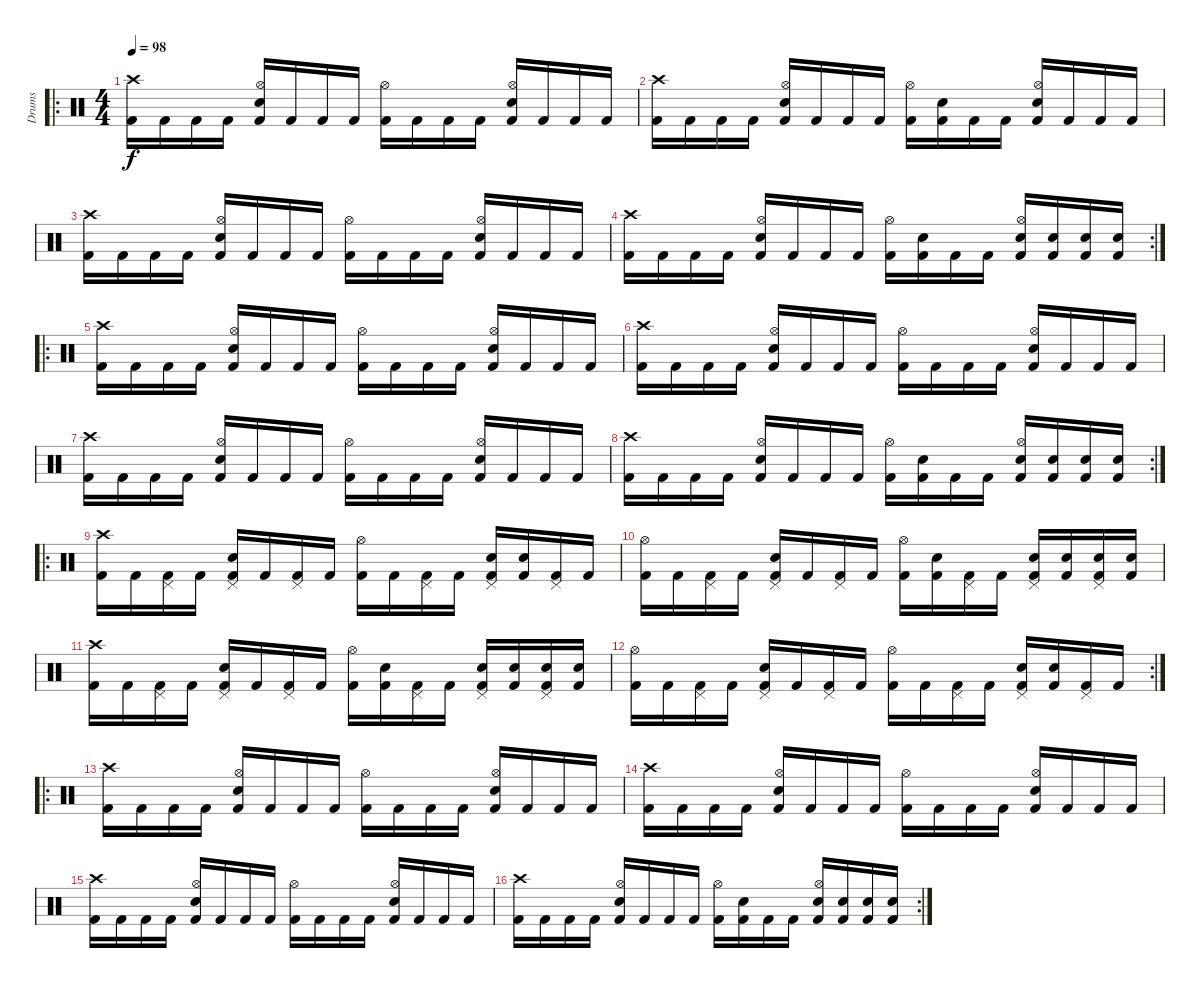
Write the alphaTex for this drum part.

\track ("Drums" "Drums") {instrument percussion}
\staff {score}
\articulation defaults
\ro
\ts (4 4)
\tempo 98
\clef neutral
\ks c
("Crash high (hit)" "Kick (hit) 2").16{dy f} "Kick (hit) 2".16 "Kick (hit) 2".16 "Kick (hit) 2".16 ("Hi-Hat (open)" "Electric Snare (hit)" "Kick (hit) 2").16 "Kick (hit) 2".16 "Kick (hit) 2".16 "Kick (hit) 2".16 ("Hi-Hat (open)" "Kick (hit) 2").16 "Kick (hit) 2".16 "Kick (hit) 2".16 "Kick (hit) 2".16 ("Hi-Hat (open)" "Electric Snare (hit)" "Kick (hit) 2").16 "Kick (hit) 2".16 "Kick (hit) 2".16 "Kick (hit) 2".16 |
("Crash high (hit)" "Kick (hit) 2").16 "Kick (hit) 2".16 "Kick (hit) 2".16 "Kick (hit) 2".16 ("Hi-Hat (open)" "Electric Snare (hit)" "Kick (hit) 2").16 "Kick (hit) 2".16 "Kick (hit) 2".16 "Kick (hit) 2".16 ("Hi-Hat (open)" "Kick (hit) 2").16 ("Electric Snare (hit)" "Kick (hit) 2").16 "Kick (hit) 2".16 "Kick (hit) 2".16 ("Hi-Hat (open)" "Electric Snare (hit)" "Kick (hit) 2").16 "Kick (hit) 2".16 "Kick (hit) 2".16 "Kick (hit) 2".16 |
("Crash high (hit)" "Kick (hit) 2").16 "Kick (hit) 2".16 "Kick (hit) 2".16 "Kick (hit) 2".16 ("Hi-Hat (open)" "Electric Snare (hit)" "Kick (hit) 2").16 "Kick (hit) 2".16 "Kick (hit) 2".16 "Kick (hit) 2".16 ("Hi-Hat (open)" "Kick (hit) 2").16 "Kick (hit) 2".16 "Kick (hit) 2".16 "Kick (hit) 2".16 ("Hi-Hat (open)" "Electric Snare (hit)" "Kick (hit) 2").16 "Kick (hit) 2".16 "Kick (hit) 2".16 "Kick (hit) 2".16 |
\rc 2
("Crash high (hit)" "Kick (hit) 2").16 "Kick (hit) 2".16 "Kick (hit) 2".16 "Kick (hit) 2".16 ("Hi-Hat (open)" "Electric Snare (hit)" "Kick (hit) 2").16 "Kick (hit) 2".16 "Kick (hit) 2".16 "Kick (hit) 2".16 ("Hi-Hat (open)" "Kick (hit) 2").16 ("Electric Snare (hit)" "Kick (hit) 2").16 "Kick (hit) 2".16 "Kick (hit) 2".16 ("Hi-Hat (open)" "Electric Snare (hit)" "Kick (hit) 2").16 ("Electric Snare (hit)" "Kick (hit) 2").16 ("Electric Snare (hit)" "Kick (hit) 2").16 ("Electric Snare (hit)" "Kick (hit) 2").16 |
\ro
("Crash high (hit)" "Kick (hit) 2").16 "Kick (hit) 2".16 "Kick (hit) 2".16 "Kick (hit) 2".16 ("Hi-Hat (open)" "Electric Snare (hit)" "Kick (hit) 2").16 "Kick (hit) 2".16 "Kick (hit) 2".16 "Kick (hit) 2".16 ("Hi-Hat (open)" "Kick (hit) 2").16 "Kick (hit) 2".16 "Kick (hit) 2".16 "Kick (hit) 2".16 ("Hi-Hat (open)" "Electric Snare (hit)" "Kick (hit) 2").16 "Kick (hit) 2".16 "Kick (hit) 2".16 "Kick (hit) 2".16 |
("Crash high (hit)" "Kick (hit) 2").16 "Kick (hit) 2".16 "Kick (hit) 2".16 "Kick (hit) 2".16 ("Hi-Hat (open)" "Electric Snare (hit)" "Kick (hit) 2").16 "Kick (hit) 2".16 "Kick (hit) 2".16 "Kick (hit) 2".16 ("Hi-Hat (open)" "Kick (hit) 2").16 "Kick (hit) 2".16 "Kick (hit) 2".16 "Kick (hit) 2".16 ("Hi-Hat (open)" "Electric Snare (hit)" "Kick (hit) 2").16 "Kick (hit) 2".16 "Kick (hit) 2".16 "Kick (hit) 2".16 |
("Crash high (hit)" "Kick (hit) 2").16 "Kick (hit) 2".16 "Kick (hit) 2".16 "Kick (hit) 2".16 ("Hi-Hat (open)" "Electric Snare (hit)" "Kick (hit) 2").16 "Kick (hit) 2".16 "Kick (hit) 2".16 "Kick (hit) 2".16 ("Hi-Hat (open)" "Kick (hit) 2").16 "Kick (hit) 2".16 "Kick (hit) 2".16 "Kick (hit) 2".16 ("Hi-Hat (open)" "Electric Snare (hit)" "Kick (hit) 2").16 "Kick (hit) 2".16 "Kick (hit) 2".16 "Kick (hit) 2".16 |
\rc 2
("Crash high (hit)" "Kick (hit) 2").16 "Kick (hit) 2".16 "Kick (hit) 2".16 "Kick (hit) 2".16 ("Hi-Hat (open)" "Electric Snare (hit)" "Kick (hit) 2").16 "Kick (hit) 2".16 "Kick (hit) 2".16 "Kick (hit) 2".16 ("Hi-Hat (open)" "Kick (hit) 2").16 ("Electric Snare (hit)" "Kick (hit) 2").16 "Kick (hit) 2".16 "Kick (hit) 2".16 ("Hi-Hat (open)" "Electric Snare (hit)" "Kick (hit) 2").16 ("Electric Snare (hit)" "Kick (hit) 2").16 ("Electric Snare (hit)" "Kick (hit) 2").16 ("Electric Snare (hit)" "Kick (hit) 2").16 |
\ro
("Crash high (hit)" "Kick (hit) 2").16 "Kick (hit) 2".16 ("Pedal Hi-Hat (hit)" "Kick (hit) 2").16 "Kick (hit) 2".16 ("Pedal Hi-Hat (hit)" "Electric Snare (hit)" "Kick (hit) 2").16 "Kick (hit) 2".16 ("Pedal Hi-Hat (hit)" "Kick (hit) 2").16 "Kick (hit) 2".16 ("Hi-Hat (open)" "Kick (hit) 2").16 "Kick (hit) 2".16 ("Pedal Hi-Hat (hit)" "Kick (hit) 2").16 "Kick (hit) 2".16 ("Pedal Hi-Hat (hit)" "Electric Snare (hit)" "Kick (hit) 2").16 ("Electric Snare (hit)" "Kick (hit) 2").16 ("Pedal Hi-Hat (hit)" "Kick (hit) 2").16 "Kick (hit) 2".16 |
("Hi-Hat (open)" "Kick (hit) 2").16 "Kick (hit) 2".16 ("Pedal Hi-Hat (hit)" "Kick (hit) 2").16 "Kick (hit) 2".16 ("Pedal Hi-Hat (hit)" "Electric Snare (hit)" "Kick (hit) 2").16 "Kick (hit) 2".16 ("Pedal Hi-Hat (hit)" "Kick (hit) 2").16 "Kick (hit) 2".16 ("Hi-Hat (open)" "Kick (hit) 2").16 ("Electric Snare (hit)" "Kick (hit) 2").16 ("Pedal Hi-Hat (hit)" "Kick (hit) 2").16 "Kick (hit) 2".16 ("Pedal Hi-Hat (hit)" "Electric Snare (hit)" "Kick (hit) 2").16 ("Electric Snare (hit)" "Kick (hit) 2").16 ("Pedal Hi-Hat (hit)" "Electric Snare (hit)" "Kick (hit) 2").16 ("Electric Snare (hit)" "Kick (hit) 2").16 |
("Crash high (hit)" "Kick (hit) 2").16 "Kick (hit) 2".16 ("Pedal Hi-Hat (hit)" "Kick (hit) 2").16 "Kick (hit) 2".16 ("Pedal Hi-Hat (hit)" "Electric Snare (hit)" "Kick (hit) 2").16 "Kick (hit) 2".16 ("Pedal Hi-Hat (hit)" "Kick (hit) 2").16 "Kick (hit) 2".16 ("Hi-Hat (open)" "Kick (hit) 2").16 ("Electric Snare (hit)" "Kick (hit) 2").16 ("Pedal Hi-Hat (hit)" "Kick (hit) 2").16 "Kick (hit) 2".16 ("Pedal Hi-Hat (hit)" "Electric Snare (hit)" "Kick (hit) 2").16 ("Electric Snare (hit)" "Kick (hit) 2").16 ("Pedal Hi-Hat (hit)" "Electric Snare (hit)" "Kick (hit) 2").16 ("Electric Snare (hit)" "Kick (hit) 2").16 |
\rc 2
("Hi-Hat (open)" "Kick (hit) 2").16 "Kick (hit) 2".16 ("Pedal Hi-Hat (hit)" "Kick (hit) 2").16 "Kick (hit) 2".16 ("Pedal Hi-Hat (hit)" "Electric Snare (hit)" "Kick (hit) 2").16 "Kick (hit) 2".16 ("Pedal Hi-Hat (hit)" "Kick (hit) 2").16 "Kick (hit) 2".16 ("Hi-Hat (open)" "Kick (hit) 2").16 "Kick (hit) 2".16 ("Pedal Hi-Hat (hit)" "Kick (hit) 2").16 "Kick (hit) 2".16 ("Pedal Hi-Hat (hit)" "Electric Snare (hit)" "Kick (hit) 2").16 ("Electric Snare (hit)" "Kick (hit) 2").16 ("Pedal Hi-Hat (hit)" "Kick (hit) 2").16 "Kick (hit) 2".16 |
\ro
("Crash high (hit)" "Kick (hit) 2").16 "Kick (hit) 2".16 "Kick (hit) 2".16 "Kick (hit) 2".16 ("Hi-Hat (open)" "Electric Snare (hit)" "Kick (hit) 2").16 "Kick (hit) 2".16 "Kick (hit) 2".16 "Kick (hit) 2".16 ("Hi-Hat (open)" "Kick (hit) 2").16 "Kick (hit) 2".16 "Kick (hit) 2".16 "Kick (hit) 2".16 ("Hi-Hat (open)" "Electric Snare (hit)" "Kick (hit) 2").16 "Kick (hit) 2".16 "Kick (hit) 2".16 "Kick (hit) 2".16 |
("Crash high (hit)" "Kick (hit) 2").16 "Kick (hit) 2".16 "Kick (hit) 2".16 "Kick (hit) 2".16 ("Hi-Hat (open)" "Electric Snare (hit)" "Kick (hit) 2").16 "Kick (hit) 2".16 "Kick (hit) 2".16 "Kick (hit) 2".16 ("Hi-Hat (open)" "Kick (hit) 2").16 "Kick (hit) 2".16 "Kick (hit) 2".16 "Kick (hit) 2".16 ("Hi-Hat (open)" "Electric Snare (hit)" "Kick (hit) 2").16 "Kick (hit) 2".16 "Kick (hit) 2".16 "Kick (hit) 2".16 |
("Crash high (hit)" "Kick (hit) 2").16 "Kick (hit) 2".16 "Kick (hit) 2".16 "Kick (hit) 2".16 ("Hi-Hat (open)" "Electric Snare (hit)" "Kick (hit) 2").16 "Kick (hit) 2".16 "Kick (hit) 2".16 "Kick (hit) 2".16 ("Hi-Hat (open)" "Kick (hit) 2").16 "Kick (hit) 2".16 "Kick (hit) 2".16 "Kick (hit) 2".16 ("Hi-Hat (open)" "Electric Snare (hit)" "Kick (hit) 2").16 "Kick (hit) 2".16 "Kick (hit) 2".16 "Kick (hit) 2".16 |
\rc 2
("Crash high (hit)" "Kick (hit) 2").16 "Kick (hit) 2".16 "Kick (hit) 2".16 "Kick (hit) 2".16 ("Hi-Hat (open)" "Electric Snare (hit)" "Kick (hit) 2").16 "Kick (hit) 2".16 "Kick (hit) 2".16 "Kick (hit) 2".16 ("Hi-Hat (open)" "Kick (hit) 2").16 ("Electric Snare (hit)" "Kick (hit) 2").16 "Kick (hit) 2".16 "Kick (hit) 2".16 ("Hi-Hat (open)" "Electric Snare (hit)" "Kick (hit) 2").16 ("Electric Snare (hit)" "Kick (hit) 2").16 ("Electric Snare (hit)" "Kick (hit) 2").16 ("Electric Snare (hit)" "Kick (hit) 2").16
